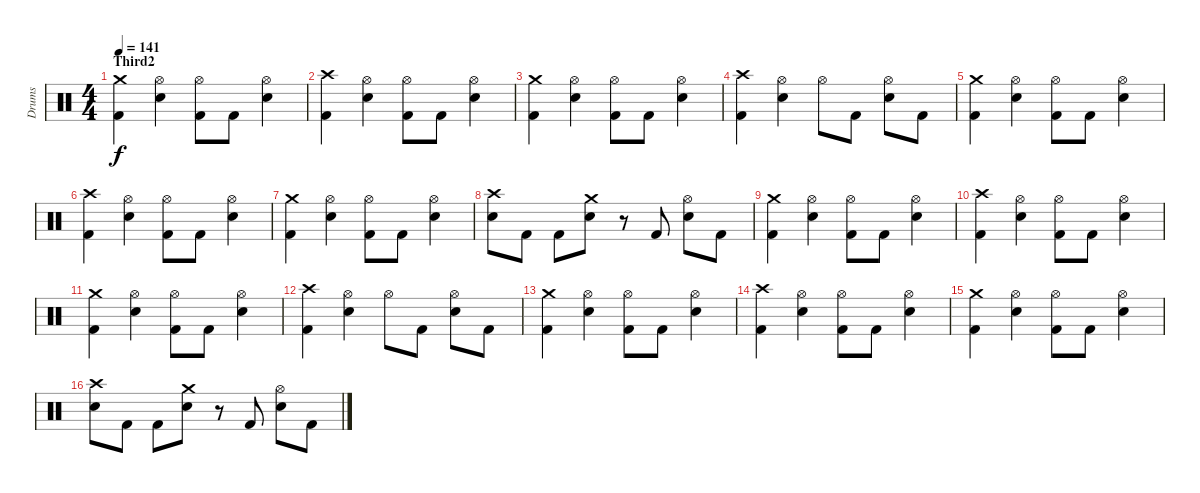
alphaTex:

\track ("Drums" "Drums") {instrument percussion}
\staff {score}
\articulation defaults
\ts (4 4)
\section ("" "Third2")
\tempo 141
\clef neutral
\ks c
("Crash medium (hit)" "Kick (hit) 2").4{dy f} ("Hi-Hat (open)" "Electric Snare (hit)").4 ("Hi-Hat (open)" "Kick (hit) 2").8 "Kick (hit) 2".8 ("Hi-Hat (open)" "Electric Snare (hit)").4 |
("Crash high (hit)" "Kick (hit) 2").4 ("Hi-Hat (open)" "Electric Snare (hit)").4 ("Hi-Hat (open)" "Kick (hit) 2").8 "Kick (hit) 2".8 ("Hi-Hat (open)" "Electric Snare (hit)").4 |
("Crash medium (hit)" "Kick (hit) 2").4 ("Hi-Hat (open)" "Electric Snare (hit)").4 ("Hi-Hat (open)" "Kick (hit) 2").8 "Kick (hit) 2".8 ("Hi-Hat (open)" "Electric Snare (hit)").4 |
("Crash high (hit)" "Kick (hit) 2").4 ("Hi-Hat (open)" "Electric Snare (hit)").4 "Hi-Hat (open)".8 "Kick (hit) 2".8 ("Hi-Hat (open)" "Electric Snare (hit)").8 "Kick (hit) 2".8 |
("Crash medium (hit)" "Kick (hit) 2").4 ("Hi-Hat (open)" "Electric Snare (hit)").4 ("Hi-Hat (open)" "Kick (hit) 2").8 "Kick (hit) 2".8 ("Hi-Hat (open)" "Electric Snare (hit)").4 |
("Crash high (hit)" "Kick (hit) 2").4 ("Hi-Hat (open)" "Electric Snare (hit)").4 ("Hi-Hat (open)" "Kick (hit) 2").8 "Kick (hit) 2".8 ("Hi-Hat (open)" "Electric Snare (hit)").4 |
("Crash medium (hit)" "Kick (hit) 2").4 ("Hi-Hat (open)" "Electric Snare (hit)").4 ("Hi-Hat (open)" "Kick (hit) 2").8 "Kick (hit) 2".8 ("Hi-Hat (open)" "Electric Snare (hit)").4 |
("Crash high (hit)" "Electric Snare (hit)").8 "Kick (hit) 2".8 "Kick (hit) 2".8 ("Crash medium (hit)" "Electric Snare (hit)").8 r.8 "Kick (hit) 2".8 ("Hi-Hat (open)" "Electric Snare (hit)").8 "Kick (hit) 2".8 |
("Crash medium (hit)" "Kick (hit) 2").4 ("Hi-Hat (open)" "Electric Snare (hit)").4 ("Hi-Hat (open)" "Kick (hit) 2").8 "Kick (hit) 2".8 ("Hi-Hat (open)" "Electric Snare (hit)").4 |
("Crash high (hit)" "Kick (hit) 2").4 ("Hi-Hat (open)" "Electric Snare (hit)").4 ("Hi-Hat (open)" "Kick (hit) 2").8 "Kick (hit) 2".8 ("Hi-Hat (open)" "Electric Snare (hit)").4 |
("Crash medium (hit)" "Kick (hit) 2").4 ("Hi-Hat (open)" "Electric Snare (hit)").4 ("Hi-Hat (open)" "Kick (hit) 2").8 "Kick (hit) 2".8 ("Hi-Hat (open)" "Electric Snare (hit)").4 |
("Crash high (hit)" "Kick (hit) 2").4 ("Hi-Hat (open)" "Electric Snare (hit)").4 "Hi-Hat (open)".8 "Kick (hit) 2".8 ("Hi-Hat (open)" "Electric Snare (hit)").8 "Kick (hit) 2".8 |
("Crash medium (hit)" "Kick (hit) 2").4 ("Hi-Hat (open)" "Electric Snare (hit)").4 ("Hi-Hat (open)" "Kick (hit) 2").8 "Kick (hit) 2".8 ("Hi-Hat (open)" "Electric Snare (hit)").4 |
("Crash high (hit)" "Kick (hit) 2").4 ("Hi-Hat (open)" "Electric Snare (hit)").4 ("Hi-Hat (open)" "Kick (hit) 2").8 "Kick (hit) 2".8 ("Hi-Hat (open)" "Electric Snare (hit)").4 |
("Crash medium (hit)" "Kick (hit) 2").4 ("Hi-Hat (open)" "Electric Snare (hit)").4 ("Hi-Hat (open)" "Kick (hit) 2").8 "Kick (hit) 2".8 ("Hi-Hat (open)" "Electric Snare (hit)").4 |
("Crash high (hit)" "Electric Snare (hit)").8 "Kick (hit) 2".8 "Kick (hit) 2".8 ("Crash medium (hit)" "Electric Snare (hit)").8 r.8 "Kick (hit) 2".8 ("Hi-Hat (open)" "Electric Snare (hit)").8 "Kick (hit) 2".8
